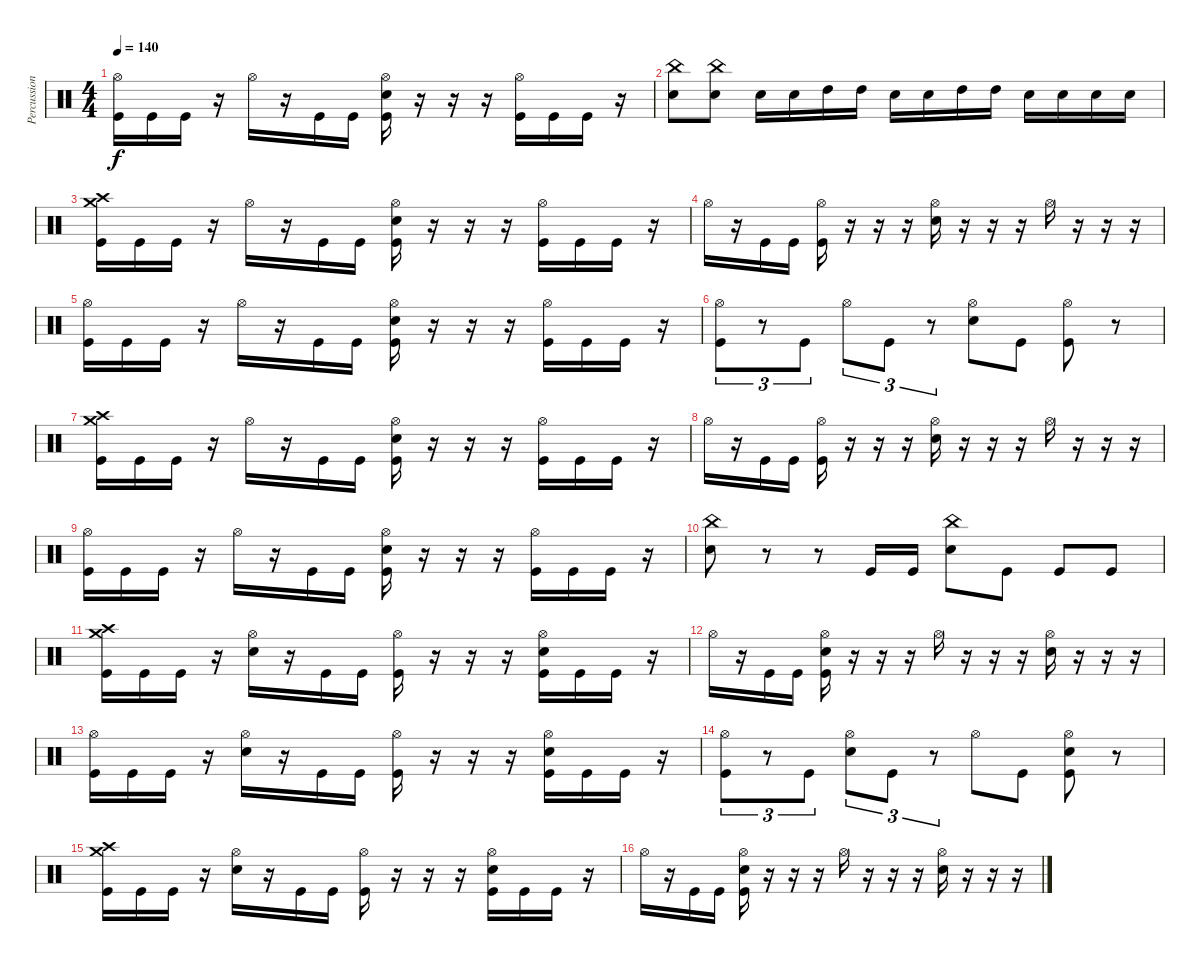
\track ("Percussion" "Percussion") {instrument percussion}
\staff {score}
\articulation defaults
\ts (4 4)
\tempo 140
\clef neutral
\ks c
("Hi-Hat (open)" "Kick (hit)").16{dy f} "Kick (hit)".16 "Kick (hit)".16 r.16 "Hi-Hat (open)".16 r.16 "Kick (hit)".16 "Kick (hit)".16 ("Hi-Hat (open)" "Snare (hit) 2" "Kick (hit)").16 r.16 r.16 r.16 ("Hi-Hat (open)" "Kick (hit)").16 "Kick (hit)".16 "Kick (hit)".16 r.16 |
("China (hit)" "Snare (hit) 2").8 ("China (hit)" "Snare (hit) 2").8 "Snare (hit) 2".16 "Snare (hit) 2".16 "High Tom (hit)".16 "High Tom (hit)".16 "Snare (hit) 2".16 "Snare (hit) 2".16 "High Tom (hit)".16 "High Tom (hit)".16 "Snare (hit) 2".16 "Snare (hit) 2".16 "Snare (hit) 2".16 "Snare (hit) 2".16 |
("Crash high (hit)" "Crash medium (hit)" "Kick (hit)").16 "Kick (hit)".16 "Kick (hit)".16 r.16 "Hi-Hat (open)".16 r.16 "Kick (hit)".16 "Kick (hit)".16 ("Hi-Hat (open)" "Snare (hit) 2" "Kick (hit)").16 r.16 r.16 r.16 ("Hi-Hat (open)" "Kick (hit)").16 "Kick (hit)".16 "Kick (hit)".16 r.16 |
"Hi-Hat (open)".16 r.16 "Kick (hit)".16 "Kick (hit)".16 ("Hi-Hat (open)" "Kick (hit)").16 r.16 r.16 r.16 ("Hi-Hat (open)" "Snare (hit) 2").16 r.16 r.16 r.16 "Hi-Hat (open)".16 r.16 r.16 r.16 |
("Hi-Hat (open)" "Kick (hit)").16 "Kick (hit)".16 "Kick (hit)".16 r.16 "Hi-Hat (open)".16 r.16 "Kick (hit)".16 "Kick (hit)".16 ("Hi-Hat (open)" "Snare (hit) 2" "Kick (hit)").16 r.16 r.16 r.16 ("Hi-Hat (open)" "Kick (hit)").16 "Kick (hit)".16 "Kick (hit)".16 r.16 |
("Hi-Hat (open)" "Kick (hit)").8{tu (3 2)} r.8{tu (3 2)} "Kick (hit)".8{tu (3 2)} "Hi-Hat (open)".8{tu (3 2)} "Kick (hit)".8{tu (3 2)} r.8{tu (3 2)} ("Hi-Hat (open)" "Snare (hit) 2").8 "Kick (hit)".8 ("Hi-Hat (open)" "Kick (hit)").8 r.8 |
("Crash high (hit)" "Crash medium (hit)" "Kick (hit)").16 "Kick (hit)".16 "Kick (hit)".16 r.16 "Hi-Hat (open)".16 r.16 "Kick (hit)".16 "Kick (hit)".16 ("Hi-Hat (open)" "Snare (hit) 2" "Kick (hit)").16 r.16 r.16 r.16 ("Hi-Hat (open)" "Kick (hit)").16 "Kick (hit)".16 "Kick (hit)".16 r.16 |
"Hi-Hat (open)".16 r.16 "Kick (hit)".16 "Kick (hit)".16 ("Hi-Hat (open)" "Kick (hit)").16 r.16 r.16 r.16 ("Hi-Hat (open)" "Snare (hit) 2").16 r.16 r.16 r.16 "Hi-Hat (open)".16 r.16 r.16 r.16 |
("Hi-Hat (open)" "Kick (hit)").16 "Kick (hit)".16 "Kick (hit)".16 r.16 "Hi-Hat (open)".16 r.16 "Kick (hit)".16 "Kick (hit)".16 ("Hi-Hat (open)" "Snare (hit) 2" "Kick (hit)").16 r.16 r.16 r.16 ("Hi-Hat (open)" "Kick (hit)").16 "Kick (hit)".16 "Kick (hit)".16 r.16 |
("China (hit)" "Snare (hit) 2").8 r.8 r.8 "Kick (hit)".16 "Kick (hit)".16 ("China (hit)" "Snare (hit) 2").8 "Kick (hit)".8 "Kick (hit)".8 "Kick (hit)".8 |
("Crash high (hit)" "Crash medium (hit)" "Kick (hit)").16 "Kick (hit)".16 "Kick (hit)".16 r.16 ("Snare (hit) 2" "Hi-Hat (open)").16 r.16 "Kick (hit)".16 "Kick (hit)".16 ("Hi-Hat (open)" "Kick (hit)").16 r.16 r.16 r.16 ("Hi-Hat (open)" "Snare (hit) 2" "Kick (hit)").16 "Kick (hit)".16 "Kick (hit)".16 r.16 |
"Hi-Hat (open)".16 r.16 "Kick (hit)".16 "Kick (hit)".16 ("Snare (hit) 2" "Hi-Hat (open)" "Kick (hit)").16 r.16 r.16 r.16 "Hi-Hat (open)".16 r.16 r.16 r.16 ("Hi-Hat (open)" "Snare (hit) 2").16 r.16 r.16 r.16 |
("Hi-Hat (open)" "Kick (hit)").16 "Kick (hit)".16 "Kick (hit)".16 r.16 ("Hi-Hat (open)" "Snare (hit) 2").16 r.16 "Kick (hit)".16 "Kick (hit)".16 ("Hi-Hat (open)" "Kick (hit)").16 r.16 r.16 r.16 ("Hi-Hat (open)" "Snare (hit) 2" "Kick (hit)").16 "Kick (hit)".16 "Kick (hit)".16 r.16 |
("Hi-Hat (open)" "Kick (hit)").8{tu (3 2)} r.8{tu (3 2)} "Kick (hit)".8{tu (3 2)} ("Hi-Hat (open)" "Snare (hit) 2").8{tu (3 2)} "Kick (hit)".8{tu (3 2)} r.8{tu (3 2)} "Hi-Hat (open)".8 "Kick (hit)".8 ("Hi-Hat (open)" "Snare (hit) 2" "Kick (hit)").8 r.8 |
("Crash high (hit)" "Crash medium (hit)" "Kick (hit)").16 "Kick (hit)".16 "Kick (hit)".16 r.16 ("Snare (hit) 2" "Hi-Hat (open)").16 r.16 "Kick (hit)".16 "Kick (hit)".16 ("Hi-Hat (open)" "Kick (hit)").16 r.16 r.16 r.16 ("Hi-Hat (open)" "Snare (hit) 2" "Kick (hit)").16 "Kick (hit)".16 "Kick (hit)".16 r.16 |
"Hi-Hat (open)".16 r.16 "Kick (hit)".16 "Kick (hit)".16 ("Hi-Hat (open)" "Snare (hit) 2" "Kick (hit)").16 r.16 r.16 r.16 "Hi-Hat (open)".16 r.16 r.16 r.16 ("Hi-Hat (open)" "Snare (hit) 2").16 r.16 r.16 r.16
